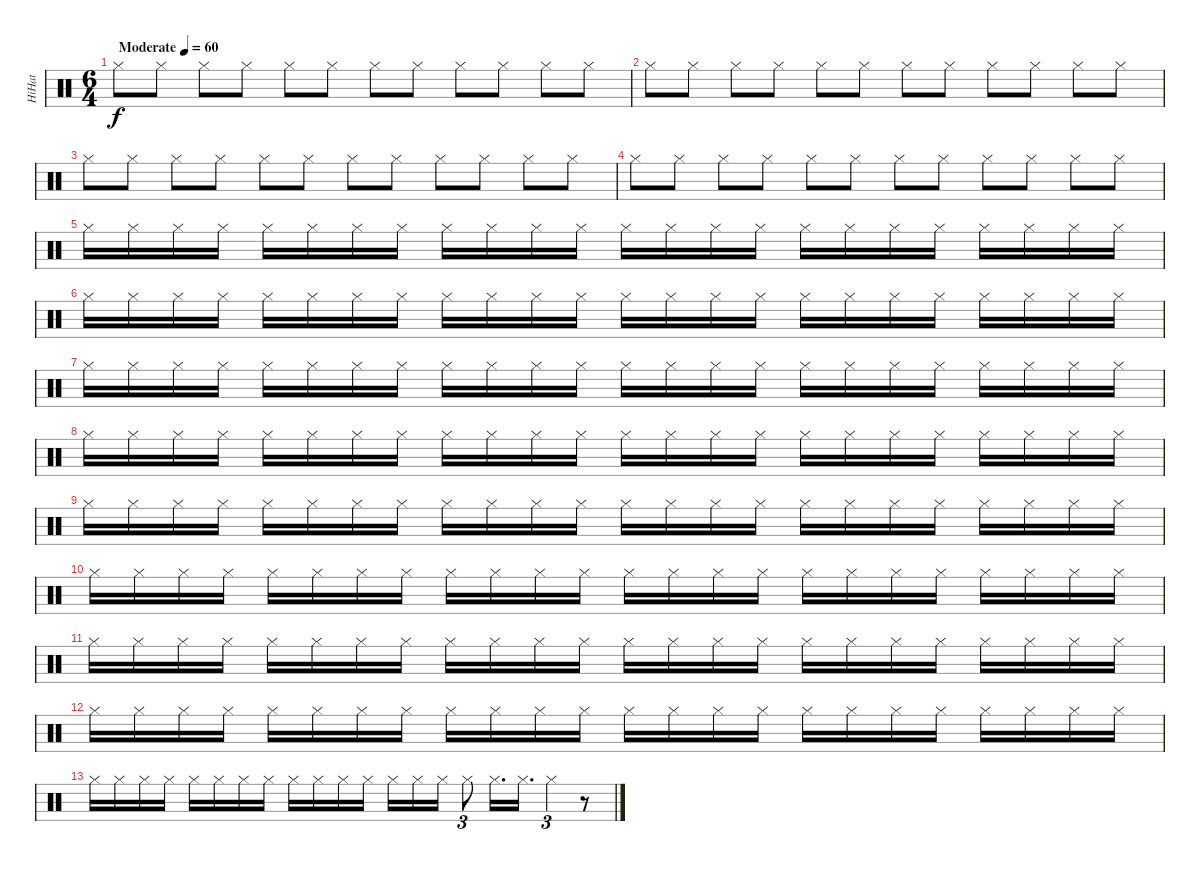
\track ("HiHat" "HiHat") {instrument percussion}
\staff
\articulation defaults
\ts (6 4)
\tempo (60 "Moderate")
\clef neutral
\ks c "Hi-Hat (closed)".8{dy f} "Hi-Hat (closed)".8 "Hi-Hat (closed)".8 "Hi-Hat (closed)".8 "Hi-Hat (closed)".8 "Hi-Hat (closed)".8 "Hi-Hat (closed)".8 "Hi-Hat (closed)".8 "Hi-Hat (closed)".8 "Hi-Hat (closed)".8 "Hi-Hat (closed)".8 "Hi-Hat (closed)".8
|
"Hi-Hat (closed)".8 "Hi-Hat (closed)".8 "Hi-Hat (closed)".8 "Hi-Hat (closed)".8 "Hi-Hat (closed)".8 "Hi-Hat (closed)".8 "Hi-Hat (closed)".8 "Hi-Hat (closed)".8 "Hi-Hat (closed)".8 "Hi-Hat (closed)".8 "Hi-Hat (closed)".8 "Hi-Hat (closed)".8 |
"Hi-Hat (closed)".8 "Hi-Hat (closed)".8 "Hi-Hat (closed)".8 "Hi-Hat (closed)".8 "Hi-Hat (closed)".8 "Hi-Hat (closed)".8 "Hi-Hat (closed)".8 "Hi-Hat (closed)".8 "Hi-Hat (closed)".8 "Hi-Hat (closed)".8 "Hi-Hat (closed)".8 "Hi-Hat (closed)".8 |
"Hi-Hat (closed)".8 "Hi-Hat (closed)".8 "Hi-Hat (closed)".8 "Hi-Hat (closed)".8 "Hi-Hat (closed)".8 "Hi-Hat (closed)".8 "Hi-Hat (closed)".8 "Hi-Hat (closed)".8 "Hi-Hat (closed)".8 "Hi-Hat (closed)".8 "Hi-Hat (closed)".8 "Hi-Hat (closed)".8 |
"Hi-Hat (closed)".16 "Hi-Hat (closed)".16 "Hi-Hat (closed)".16 "Hi-Hat (closed)".16 "Hi-Hat (closed)".16 "Hi-Hat (closed)".16 "Hi-Hat (closed)".16 "Hi-Hat (closed)".16 "Hi-Hat (closed)".16 "Hi-Hat (closed)".16 "Hi-Hat (closed)".16 "Hi-Hat (closed)".16 "Hi-Hat (closed)".16 "Hi-Hat (closed)".16 "Hi-Hat (closed)".16 "Hi-Hat (closed)".16 "Hi-Hat (closed)".16 "Hi-Hat (closed)".16 "Hi-Hat (closed)".16 "Hi-Hat (closed)".16 "Hi-Hat (closed)".16 "Hi-Hat (closed)".16 "Hi-Hat (closed)".16 "Hi-Hat (closed)".16 |
"Hi-Hat (closed)".16 "Hi-Hat (closed)".16 "Hi-Hat (closed)".16 "Hi-Hat (closed)".16 "Hi-Hat (closed)".16 "Hi-Hat (closed)".16 "Hi-Hat (closed)".16 "Hi-Hat (closed)".16 "Hi-Hat (closed)".16 "Hi-Hat (closed)".16 "Hi-Hat (closed)".16 "Hi-Hat (closed)".16 "Hi-Hat (closed)".16 "Hi-Hat (closed)".16 "Hi-Hat (closed)".16 "Hi-Hat (closed)".16 "Hi-Hat (closed)".16 "Hi-Hat (closed)".16 "Hi-Hat (closed)".16 "Hi-Hat (closed)".16 "Hi-Hat (closed)".16 "Hi-Hat (closed)".16 "Hi-Hat (closed)".16 "Hi-Hat (closed)".16 |
"Hi-Hat (closed)".16 "Hi-Hat (closed)".16 "Hi-Hat (closed)".16 "Hi-Hat (closed)".16 "Hi-Hat (closed)".16 "Hi-Hat (closed)".16 "Hi-Hat (closed)".16 "Hi-Hat (closed)".16 "Hi-Hat (closed)".16 "Hi-Hat (closed)".16 "Hi-Hat (closed)".16 "Hi-Hat (closed)".16 "Hi-Hat (closed)".16 "Hi-Hat (closed)".16 "Hi-Hat (closed)".16 "Hi-Hat (closed)".16 "Hi-Hat (closed)".16 "Hi-Hat (closed)".16 "Hi-Hat (closed)".16 "Hi-Hat (closed)".16 "Hi-Hat (closed)".16 "Hi-Hat (closed)".16 "Hi-Hat (closed)".16 "Hi-Hat (closed)".16 |
"Hi-Hat (closed)".16 "Hi-Hat (closed)".16 "Hi-Hat (closed)".16 "Hi-Hat (closed)".16 "Hi-Hat (closed)".16 "Hi-Hat (closed)".16 "Hi-Hat (closed)".16 "Hi-Hat (closed)".16 "Hi-Hat (closed)".16 "Hi-Hat (closed)".16 "Hi-Hat (closed)".16 "Hi-Hat (closed)".16 "Hi-Hat (closed)".16 "Hi-Hat (closed)".16 "Hi-Hat (closed)".16 "Hi-Hat (closed)".16 "Hi-Hat (closed)".16 "Hi-Hat (closed)".16 "Hi-Hat (closed)".16 "Hi-Hat (closed)".16 "Hi-Hat (closed)".16 "Hi-Hat (closed)".16 "Hi-Hat (closed)".16 "Hi-Hat (closed)".16 |
"Hi-Hat (closed)".16 "Hi-Hat (closed)".16 "Hi-Hat (closed)".16 "Hi-Hat (closed)".16 "Hi-Hat (closed)".16 "Hi-Hat (closed)".16 "Hi-Hat (closed)".16 "Hi-Hat (closed)".16 "Hi-Hat (closed)".16 "Hi-Hat (closed)".16 "Hi-Hat (closed)".16 "Hi-Hat (closed)".16 "Hi-Hat (closed)".16 "Hi-Hat (closed)".16 "Hi-Hat (closed)".16 "Hi-Hat (closed)".16 "Hi-Hat (closed)".16 "Hi-Hat (closed)".16 "Hi-Hat (closed)".16 "Hi-Hat (closed)".16 "Hi-Hat (closed)".16 "Hi-Hat (closed)".16 "Hi-Hat (closed)".16 "Hi-Hat (closed)".16 |
"Hi-Hat (closed)".16 "Hi-Hat (closed)".16 "Hi-Hat (closed)".16 "Hi-Hat (closed)".16 "Hi-Hat (closed)".16 "Hi-Hat (closed)".16 "Hi-Hat (closed)".16 "Hi-Hat (closed)".16 "Hi-Hat (closed)".16 "Hi-Hat (closed)".16 "Hi-Hat (closed)".16 "Hi-Hat (closed)".16 "Hi-Hat (closed)".16 "Hi-Hat (closed)".16 "Hi-Hat (closed)".16 "Hi-Hat (closed)".16 "Hi-Hat (closed)".16 "Hi-Hat (closed)".16 "Hi-Hat (closed)".16 "Hi-Hat (closed)".16 "Hi-Hat (closed)".16 "Hi-Hat (closed)".16 "Hi-Hat (closed)".16 "Hi-Hat (closed)".16 |
"Hi-Hat (closed)".16 "Hi-Hat (closed)".16 "Hi-Hat (closed)".16 "Hi-Hat (closed)".16 "Hi-Hat (closed)".16 "Hi-Hat (closed)".16 "Hi-Hat (closed)".16 "Hi-Hat (closed)".16 "Hi-Hat (closed)".16 "Hi-Hat (closed)".16 "Hi-Hat (closed)".16 "Hi-Hat (closed)".16 "Hi-Hat (closed)".16 "Hi-Hat (closed)".16 "Hi-Hat (closed)".16 "Hi-Hat (closed)".16 "Hi-Hat (closed)".16 "Hi-Hat (closed)".16 "Hi-Hat (closed)".16 "Hi-Hat (closed)".16 "Hi-Hat (closed)".16 "Hi-Hat (closed)".16 "Hi-Hat (closed)".16 "Hi-Hat (closed)".16 |
"Hi-Hat (closed)".16 "Hi-Hat (closed)".16 "Hi-Hat (closed)".16 "Hi-Hat (closed)".16 "Hi-Hat (closed)".16 "Hi-Hat (closed)".16 "Hi-Hat (closed)".16 "Hi-Hat (closed)".16 "Hi-Hat (closed)".16 "Hi-Hat (closed)".16 "Hi-Hat (closed)".16 "Hi-Hat (closed)".16 "Hi-Hat (closed)".16 "Hi-Hat (closed)".16 "Hi-Hat (closed)".16 "Hi-Hat (closed)".16 "Hi-Hat (closed)".16 "Hi-Hat (closed)".16 "Hi-Hat (closed)".16 "Hi-Hat (closed)".16 "Hi-Hat (closed)".16 "Hi-Hat (closed)".16 "Hi-Hat (closed)".16 "Hi-Hat (closed)".16 |
"Hi-Hat (closed)".16 "Hi-Hat (closed)".16 "Hi-Hat (closed)".16 "Hi-Hat (closed)".16 "Hi-Hat (closed)".16 "Hi-Hat (closed)".16 "Hi-Hat (closed)".16 "Hi-Hat (closed)".16 "Hi-Hat (closed)".16 "Hi-Hat (closed)".16 "Hi-Hat (closed)".16 "Hi-Hat (closed)".16 "Hi-Hat (closed)".16 "Hi-Hat (closed)".16 "Hi-Hat (closed)".16 "Hi-Hat (closed)".8{tu (3 2)} "Hi-Hat (closed)".16{d} "Hi-Hat (closed)".16{d} "Hi-Hat (closed)".4{tu (3 2)} r.8
